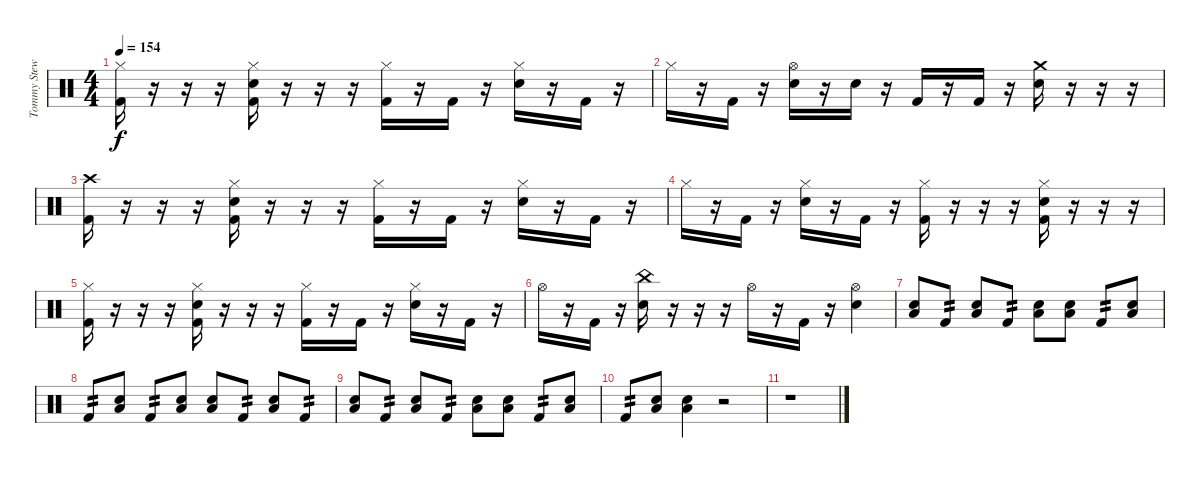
\track ("Tommy Stewart" "Tommy Stew") {instrument percussion}
\staff {score}
\articulation defaults
\ts (4 4)
\tempo 154
\clef neutral
\ks c
("Hi-Hat (closed)" "Kick (hit) 2").16{dy f} r.16 r.16 r.16 ("Hi-Hat (closed)" "Snare (hit) 2" "Kick (hit) 2").16 r.16 r.16 r.16 ("Hi-Hat (closed)" "Kick (hit) 2").16 r.16 "Kick (hit) 2".16 r.16 ("Hi-Hat (closed)" "Snare (hit) 2").16 r.16 "Kick (hit) 2".16 r.16 |
"Hi-Hat (closed)".16 r.16 "Kick (hit) 2".16 r.16 ("Hi-Hat (open)" "Snare (hit) 2").16 r.16 "Snare (hit) 2".16 r.16 "Kick (hit) 2".16 r.16 "Kick (hit) 2".16 r.16 ("Crash medium (hit)" "Snare (hit) 2").16 r.16 r.16 r.16 |
("Crash high (hit)" "Kick (hit) 2").16 r.16 r.16 r.16 ("Hi-Hat (closed)" "Snare (hit) 2" "Kick (hit) 2").16 r.16 r.16 r.16 ("Hi-Hat (closed)" "Kick (hit) 2").16 r.16 "Kick (hit) 2".16 r.16 ("Hi-Hat (closed)" "Snare (hit) 2").16 r.16 "Kick (hit) 2".16 r.16 |
"Hi-Hat (closed)".16 r.16 "Kick (hit) 2".16 r.16 ("Hi-Hat (closed)" "Snare (hit) 2").16 r.16 "Kick (hit) 2".16 r.16 ("Hi-Hat (closed)" "Kick (hit) 2").16 r.16 r.16 r.16 ("Hi-Hat (closed)" "Snare (hit) 2" "Kick (hit) 2").16 r.16 r.16 r.16 |
("Hi-Hat (closed)" "Kick (hit) 2").16 r.16 r.16 r.16 ("Hi-Hat (closed)" "Snare (hit) 2" "Kick (hit) 2").16 r.16 r.16 r.16 ("Hi-Hat (closed)" "Kick (hit) 2").16 r.16 "Kick (hit) 2".16 r.16 ("Hi-Hat (closed)" "Snare (hit) 2").16 r.16 "Kick (hit) 2".16 r.16 |
"Hi-Hat (open)".16 r.16 "Kick (hit) 2".16 r.16 ("China (hit)" "Snare (hit) 2").16 r.16 r.16 r.16 "Hi-Hat (open)".16 r.16 "Kick (hit) 2".16 r.16 ("Hi-Hat (open)" "Snare (hit) 2").4 |
("Snare (hit) 2" "Low Floor Tom (hit)").8 "Kick (hit) 2".8{tp 2} ("Snare (hit) 2" "Low Floor Tom (hit)").8 "Kick (hit) 2".8{tp 2} ("Snare (hit) 2" "Low Floor Tom (hit)").8 ("Snare (hit) 2" "Low Floor Tom (hit)").8 "Kick (hit) 2".8{tp 2} ("Snare (hit) 2" "Low Floor Tom (hit)").8 |
"Kick (hit) 2".8{tp 2} ("Snare (hit) 2" "Low Floor Tom (hit)").8 "Kick (hit) 2".8{tp 2} ("Snare (hit) 2" "Low Floor Tom (hit)").8 ("Snare (hit) 2" "Low Floor Tom (hit)").8 "Kick (hit) 2".8{tp 2} ("Snare (hit) 2" "Low Floor Tom (hit)").8 "Kick (hit) 2".8{tp 2} |
("Snare (hit) 2" "Low Floor Tom (hit)").8 "Kick (hit) 2".8{tp 2} ("Snare (hit) 2" "Low Floor Tom (hit)").8 "Kick (hit) 2".8{tp 2} ("Snare (hit) 2" "Low Floor Tom (hit)").8 ("Snare (hit) 2" "Low Floor Tom (hit)").8 "Kick (hit) 2".8{tp 2} ("Snare (hit) 2" "Low Floor Tom (hit)").8 |
"Kick (hit) 2".8{tp 2} ("Snare (hit) 2" "Low Floor Tom (hit)").8 ("Snare (hit) 2" "Low Floor Tom (hit)").4 r.2 |
r.1
